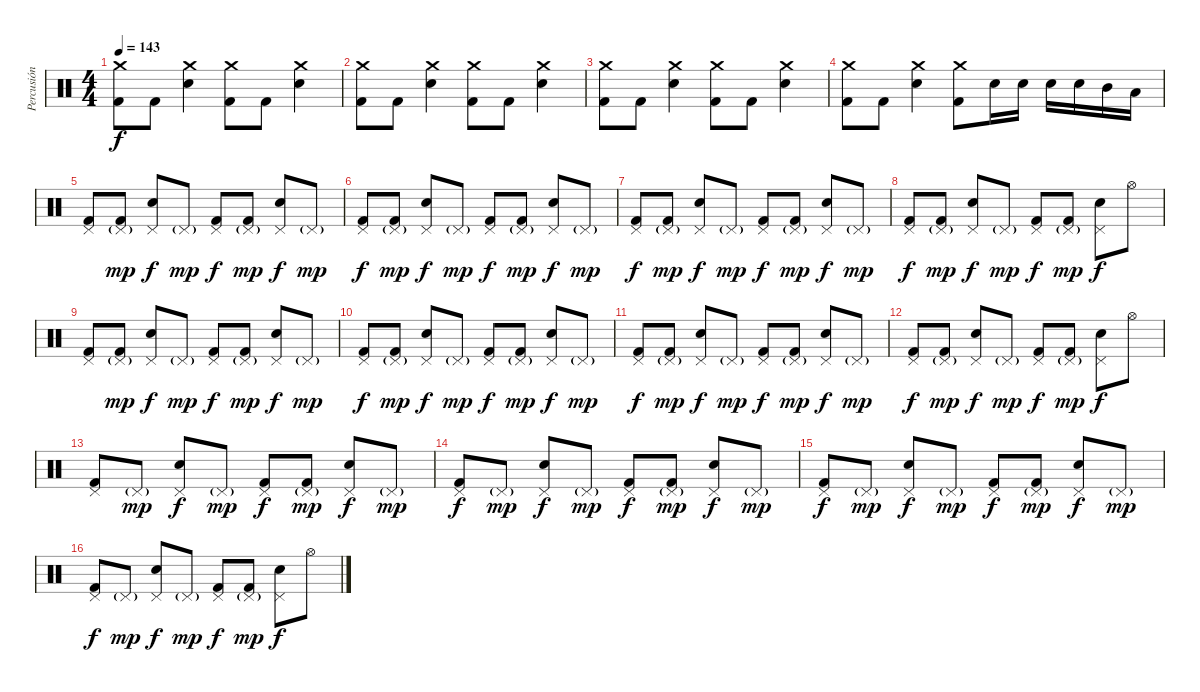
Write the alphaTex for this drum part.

\track ("Percusión" "Percusión") {instrument percussion}
\staff {score}
\articulation defaults
\ts (4 4)
\tempo 143
\clef neutral
\ks c
("Crash medium (hit)" "Kick (hit) 2").8{dy f} "Kick (hit) 2".8 ("Crash medium (hit)" "Snare (hit) 2").4 ("Crash medium (hit)" "Kick (hit) 2").8 "Kick (hit) 2".8 ("Crash medium (hit)" "Snare (hit) 2").4 |
("Crash medium (hit)" "Kick (hit) 2").8 "Kick (hit) 2".8 ("Crash medium (hit)" "Snare (hit) 2").4 ("Crash medium (hit)" "Kick (hit) 2").8 "Kick (hit) 2".8 ("Crash medium (hit)" "Snare (hit) 2").4 |
("Crash medium (hit)" "Kick (hit) 2").8 "Kick (hit) 2".8 ("Crash medium (hit)" "Snare (hit) 2").4 ("Crash medium (hit)" "Kick (hit) 2").8 "Kick (hit) 2".8 ("Crash medium (hit)" "Snare (hit) 2").4 |
("Crash medium (hit)" "Kick (hit) 2").8 "Kick (hit) 2".8 ("Crash medium (hit)" "Snare (hit) 2").4 ("Crash medium (hit)" "Kick (hit) 2").8 "Snare (hit) 2".16 "Snare (hit) 2".16 "Snare (hit) 2".16 "Snare (hit) 2".16 "Mid Tom (hit)".16 "Low Tom (hit)".16 |
("Pedal Hi-Hat (hit)" "Kick (hit) 2").8 ("Pedal Hi-Hat (hit)"{g} "Kick (hit) 2").8{dy mp} ("Pedal Hi-Hat (hit)" "Snare (hit) 2").8{dy f} "Pedal Hi-Hat (hit)"{g}.8{dy mp} ("Pedal Hi-Hat (hit)" "Kick (hit) 2").8{dy f} ("Pedal Hi-Hat (hit)"{g} "Kick (hit) 2").8{dy mp} ("Pedal Hi-Hat (hit)" "Snare (hit) 2").8{dy f} "Pedal Hi-Hat (hit)"{g}.8{dy mp} |
("Pedal Hi-Hat (hit)" "Kick (hit) 2").8{dy f} ("Pedal Hi-Hat (hit)"{g} "Kick (hit) 2").8{dy mp} ("Pedal Hi-Hat (hit)" "Snare (hit) 2").8{dy f} "Pedal Hi-Hat (hit)"{g}.8{dy mp} ("Pedal Hi-Hat (hit)" "Kick (hit) 2").8{dy f} ("Pedal Hi-Hat (hit)"{g} "Kick (hit) 2").8{dy mp} ("Pedal Hi-Hat (hit)" "Snare (hit) 2").8{dy f} "Pedal Hi-Hat (hit)"{g}.8{dy mp} |
("Pedal Hi-Hat (hit)" "Kick (hit) 2").8{dy f} ("Pedal Hi-Hat (hit)"{g} "Kick (hit) 2").8{dy mp} ("Pedal Hi-Hat (hit)" "Snare (hit) 2").8{dy f} "Pedal Hi-Hat (hit)"{g}.8{dy mp} ("Pedal Hi-Hat (hit)" "Kick (hit) 2").8{dy f} ("Pedal Hi-Hat (hit)"{g} "Kick (hit) 2").8{dy mp} ("Pedal Hi-Hat (hit)" "Snare (hit) 2").8{dy f} "Pedal Hi-Hat (hit)"{g}.8{dy mp} |
("Pedal Hi-Hat (hit)" "Kick (hit) 2").8{dy f} ("Pedal Hi-Hat (hit)"{g} "Kick (hit) 2").8{dy mp} ("Pedal Hi-Hat (hit)" "Snare (hit) 2").8{dy f} "Pedal Hi-Hat (hit)"{g}.8{dy mp} ("Pedal Hi-Hat (hit)" "Kick (hit) 2").8{dy f} ("Pedal Hi-Hat (hit)"{g} "Kick (hit) 2").8{dy mp} ("Pedal Hi-Hat (hit)" "Snare (hit) 2").8{dy f} "Hi-Hat (open)".8 |
("Pedal Hi-Hat (hit)" "Kick (hit) 2").8 ("Pedal Hi-Hat (hit)"{g} "Kick (hit) 2").8{dy mp} ("Pedal Hi-Hat (hit)" "Snare (hit) 2").8{dy f} "Pedal Hi-Hat (hit)"{g}.8{dy mp} ("Pedal Hi-Hat (hit)" "Kick (hit) 2").8{dy f} ("Pedal Hi-Hat (hit)"{g} "Kick (hit) 2").8{dy mp} ("Pedal Hi-Hat (hit)" "Snare (hit) 2").8{dy f} "Pedal Hi-Hat (hit)"{g}.8{dy mp} |
("Pedal Hi-Hat (hit)" "Kick (hit) 2").8{dy f} ("Pedal Hi-Hat (hit)"{g} "Kick (hit) 2").8{dy mp} ("Pedal Hi-Hat (hit)" "Snare (hit) 2").8{dy f} "Pedal Hi-Hat (hit)"{g}.8{dy mp} ("Pedal Hi-Hat (hit)" "Kick (hit) 2").8{dy f} ("Pedal Hi-Hat (hit)"{g} "Kick (hit) 2").8{dy mp} ("Pedal Hi-Hat (hit)" "Snare (hit) 2").8{dy f} "Pedal Hi-Hat (hit)"{g}.8{dy mp} |
("Pedal Hi-Hat (hit)" "Kick (hit) 2").8{dy f} ("Pedal Hi-Hat (hit)"{g} "Kick (hit) 2").8{dy mp} ("Pedal Hi-Hat (hit)" "Snare (hit) 2").8{dy f} "Pedal Hi-Hat (hit)"{g}.8{dy mp} ("Pedal Hi-Hat (hit)" "Kick (hit) 2").8{dy f} ("Pedal Hi-Hat (hit)"{g} "Kick (hit) 2").8{dy mp} ("Pedal Hi-Hat (hit)" "Snare (hit) 2").8{dy f} "Pedal Hi-Hat (hit)"{g}.8{dy mp} |
("Pedal Hi-Hat (hit)" "Kick (hit) 2").8{dy f} ("Pedal Hi-Hat (hit)"{g} "Kick (hit) 2").8{dy mp} ("Pedal Hi-Hat (hit)" "Snare (hit) 2").8{dy f} "Pedal Hi-Hat (hit)"{g}.8{dy mp} ("Pedal Hi-Hat (hit)" "Kick (hit) 2").8{dy f} ("Pedal Hi-Hat (hit)"{g} "Kick (hit) 2").8{dy mp} ("Pedal Hi-Hat (hit)" "Snare (hit) 2").8{dy f} "Hi-Hat (open)".8 |
("Pedal Hi-Hat (hit)" "Kick (hit) 2").8 "Pedal Hi-Hat (hit)"{g}.8{dy mp} ("Pedal Hi-Hat (hit)" "Snare (hit) 2").8{dy f} "Pedal Hi-Hat (hit)"{g}.8{dy mp} ("Pedal Hi-Hat (hit)" "Kick (hit) 2").8{dy f} ("Pedal Hi-Hat (hit)"{g} "Kick (hit) 2").8{dy mp} ("Pedal Hi-Hat (hit)" "Snare (hit) 2").8{dy f} "Pedal Hi-Hat (hit)"{g}.8{dy mp} |
("Pedal Hi-Hat (hit)" "Kick (hit) 2").8{dy f} "Pedal Hi-Hat (hit)"{g}.8{dy mp} ("Pedal Hi-Hat (hit)" "Snare (hit) 2").8{dy f} "Pedal Hi-Hat (hit)"{g}.8{dy mp} ("Pedal Hi-Hat (hit)" "Kick (hit) 2").8{dy f} ("Pedal Hi-Hat (hit)"{g} "Kick (hit) 2").8{dy mp} ("Pedal Hi-Hat (hit)" "Snare (hit) 2").8{dy f} "Pedal Hi-Hat (hit)"{g}.8{dy mp} |
("Pedal Hi-Hat (hit)" "Kick (hit) 2").8{dy f} "Pedal Hi-Hat (hit)"{g}.8{dy mp} ("Pedal Hi-Hat (hit)" "Snare (hit) 2").8{dy f} "Pedal Hi-Hat (hit)"{g}.8{dy mp} ("Pedal Hi-Hat (hit)" "Kick (hit) 2").8{dy f} ("Pedal Hi-Hat (hit)"{g} "Kick (hit) 2").8{dy mp} ("Pedal Hi-Hat (hit)" "Snare (hit) 2").8{dy f} "Pedal Hi-Hat (hit)"{g}.8{dy mp} |
("Pedal Hi-Hat (hit)" "Kick (hit) 2").8{dy f} "Pedal Hi-Hat (hit)"{g}.8{dy mp} ("Pedal Hi-Hat (hit)" "Snare (hit) 2").8{dy f} "Pedal Hi-Hat (hit)"{g}.8{dy mp} ("Pedal Hi-Hat (hit)" "Kick (hit) 2").8{dy f} ("Pedal Hi-Hat (hit)"{g} "Kick (hit) 2").8{dy mp} ("Pedal Hi-Hat (hit)" "Snare (hit) 2").8{dy f} "Hi-Hat (open)".8
